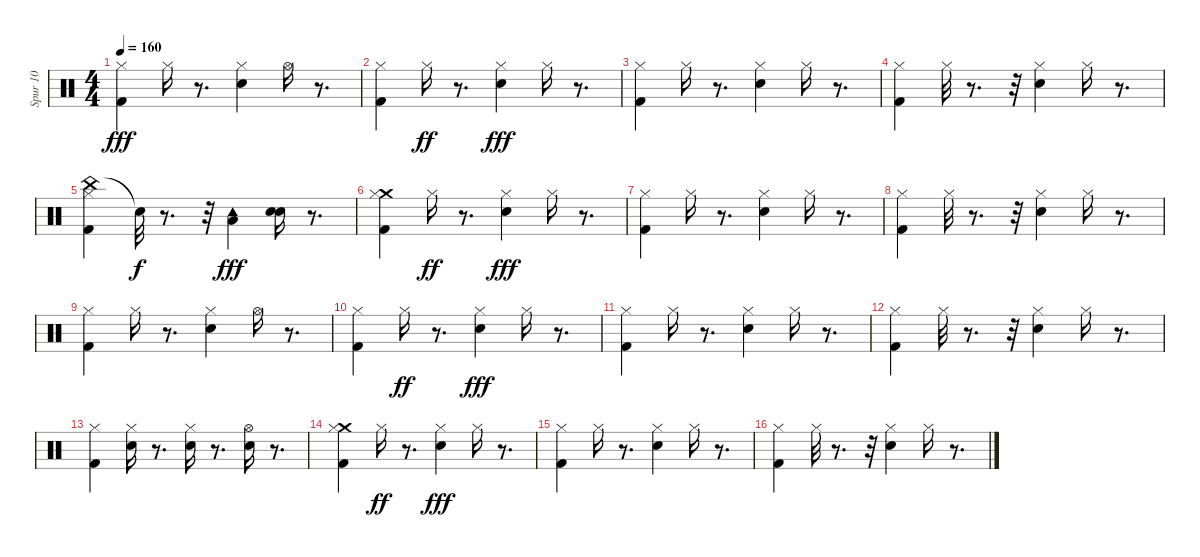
\track ("Spur 10" "Spur 10") {instrument percussion}
\staff {score}
\articulation defaults
\ts (4 4)
\tempo 160
\clef neutral
\ks c
("Kick (hit) 2" "Hi-Hat (closed)").4{dy fff} "Hi-Hat (closed)".16 r.8{d} ("Snare (hit) 2" "Hi-Hat (closed)").4 "Hi-Hat (open)".16 r.8{d} |
("Kick (hit) 2" "Hi-Hat (closed)").4 "Hi-Hat (closed)".16{dy ff} r.8{d} ("Snare (hit) 2" "Hi-Hat (closed)").4{dy fff} "Hi-Hat (closed)".16 r.8{d} |
("Kick (hit) 2" "Hi-Hat (closed)").4 "Hi-Hat (closed)".16 r.8{d} ("Snare (hit) 2" "Hi-Hat (closed)").4 "Hi-Hat (closed)".16 r.8{d} |
("Kick (hit) 2" "Hi-Hat (closed)").4 "Hi-Hat (closed)".32 r.8{d} r.32 ("Snare (hit) 2" "Hi-Hat (closed)").4 "Hi-Hat (closed)".16 r.8{d} |
("China (hit)" "Kick (hit) 2" "Hi-Hat (closed)").4 "Snare (hit)"{t}.32{dy f} r.8{d} r.32 ("Low Floor Tom (hit)" "Tambourine (hit)").4{dy fff} ("Snare (hit) 2" "Electric Snare (hit)").16 r.8{d} |
("Crash medium (hit)" "Kick (hit) 2" "Hi-Hat (closed)").4 "Hi-Hat (closed)".16{dy ff} r.8{d} ("Snare (hit) 2" "Hi-Hat (closed)").4{dy fff} "Hi-Hat (closed)".16 r.8{d} |
("Kick (hit) 2" "Hi-Hat (closed)").4 "Hi-Hat (closed)".16 r.8{d} ("Snare (hit) 2" "Hi-Hat (closed)").4 "Hi-Hat (closed)".16 r.8{d} |
("Kick (hit) 2" "Hi-Hat (closed)").4 "Hi-Hat (closed)".32 r.8{d} r.32 ("Snare (hit) 2" "Hi-Hat (closed)").4 "Hi-Hat (closed)".16 r.8{d} |
("Kick (hit) 2" "Hi-Hat (closed)").4 "Hi-Hat (closed)".16 r.8{d} ("Snare (hit) 2" "Hi-Hat (closed)").4 "Hi-Hat (open)".16 r.8{d} |
("Kick (hit) 2" "Hi-Hat (closed)").4 "Hi-Hat (closed)".16{dy ff} r.8{d} ("Snare (hit) 2" "Hi-Hat (closed)").4{dy fff} "Hi-Hat (closed)".16 r.8{d} |
("Kick (hit) 2" "Hi-Hat (closed)").4 "Hi-Hat (closed)".16 r.8{d} ("Snare (hit) 2" "Hi-Hat (closed)").4 "Hi-Hat (closed)".16 r.8{d} |
("Kick (hit) 2" "Hi-Hat (closed)").4 "Hi-Hat (closed)".32 r.8{d} r.32 ("Snare (hit) 2" "Hi-Hat (closed)").4 "Hi-Hat (closed)".16 r.8{d} |
("Kick (hit) 2" "Hi-Hat (closed)").4 ("Hi-Hat (closed)" "Snare (hit) 2").16 r.8{d} ("Hi-Hat (closed)" "Snare (hit) 2").16 r.8{d} ("Hi-Hat (open)" "Snare (hit) 2").16 r.8{d} |
("Crash medium (hit)" "Kick (hit) 2" "Hi-Hat (closed)").4 "Hi-Hat (closed)".16{dy ff} r.8{d} ("Snare (hit) 2" "Hi-Hat (closed)").4{dy fff} "Hi-Hat (closed)".16 r.8{d} |
("Kick (hit) 2" "Hi-Hat (closed)").4 "Hi-Hat (closed)".16 r.8{d} ("Snare (hit) 2" "Hi-Hat (closed)").4 "Hi-Hat (closed)".16 r.8{d} |
("Kick (hit) 2" "Hi-Hat (closed)").4 "Hi-Hat (closed)".32 r.8{d} r.32 ("Snare (hit) 2" "Hi-Hat (closed)").4 "Hi-Hat (closed)".16 r.8{d}
